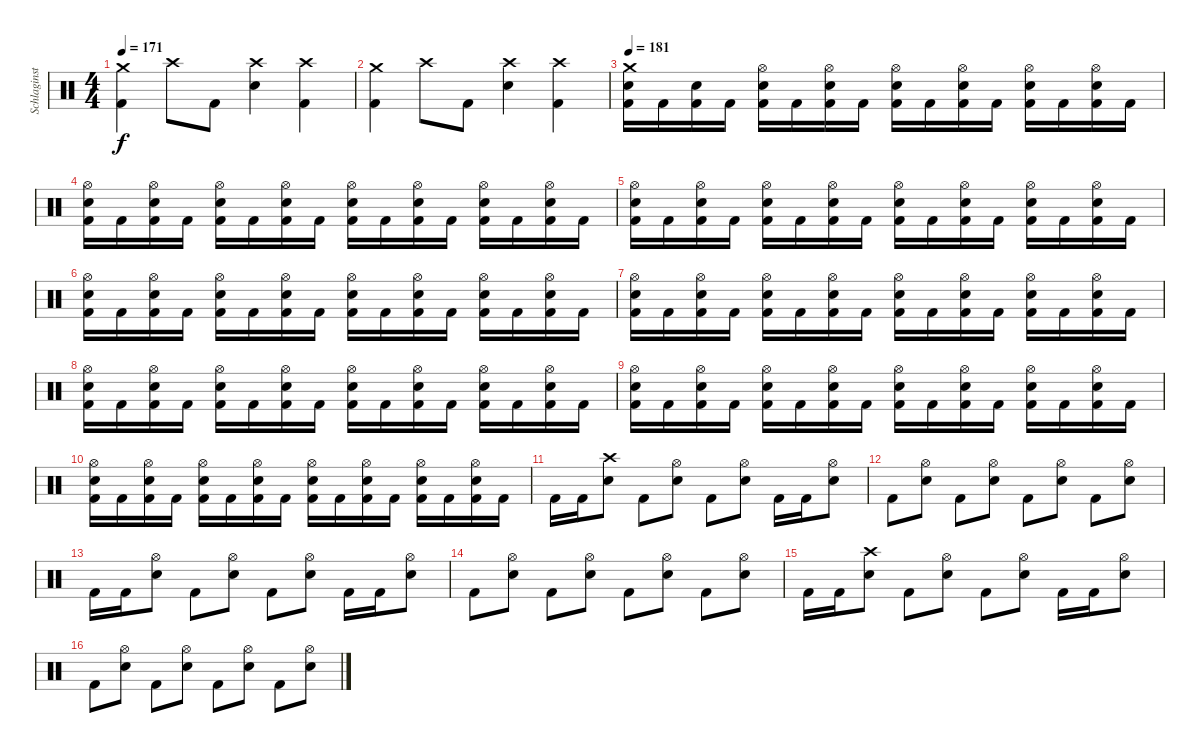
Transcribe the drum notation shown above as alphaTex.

\track ("Schlaginstrumente - Auswahl" "Schlaginst") {instrument percussion}
\staff {score}
\articulation defaults
\ts (4 4)
\tempo 171
\clef neutral
\ks c
("Crash medium (hit)" "Kick (hit) 2").4{dy f} "Crash high (hit)".8 "Kick (hit) 2".8 ("Crash high (hit)" "Snare (hit) 2").4 ("Crash high (hit)" "Kick (hit) 2").4 |
("Crash medium (hit)" "Kick (hit) 2").4 "Crash high (hit)".8 "Kick (hit) 2".8 ("Crash high (hit)" "Snare (hit) 2").4 ("Crash high (hit)" "Kick (hit) 2").4 |
\tempo 181
("Crash medium (hit)" "Snare (hit) 2" "Kick (hit) 2").16 "Kick (hit) 2".16 ("Snare (hit) 2" "Kick (hit) 2").16 "Kick (hit) 2".16 ("Hi-Hat (open)" "Snare (hit) 2" "Kick (hit) 2").16 "Kick (hit) 2".16 ("Hi-Hat (open)" "Snare (hit) 2" "Kick (hit) 2").16 "Kick (hit) 2".16 ("Hi-Hat (open)" "Snare (hit) 2" "Kick (hit) 2").16 "Kick (hit) 2".16 ("Hi-Hat (open)" "Snare (hit) 2" "Kick (hit) 2").16 "Kick (hit) 2".16 ("Hi-Hat (open)" "Snare (hit) 2" "Kick (hit) 2").16 "Kick (hit) 2".16 ("Hi-Hat (open)" "Snare (hit) 2" "Kick (hit) 2").16 "Kick (hit) 2".16 |
("Hi-Hat (open)" "Snare (hit) 2" "Kick (hit) 2").16 "Kick (hit) 2".16 ("Hi-Hat (open)" "Snare (hit) 2" "Kick (hit) 2").16 "Kick (hit) 2".16 ("Hi-Hat (open)" "Snare (hit) 2" "Kick (hit) 2").16 "Kick (hit) 2".16 ("Hi-Hat (open)" "Snare (hit) 2" "Kick (hit) 2").16 "Kick (hit) 2".16 ("Hi-Hat (open)" "Snare (hit) 2" "Kick (hit) 2").16 "Kick (hit) 2".16 ("Hi-Hat (open)" "Snare (hit) 2" "Kick (hit) 2").16 "Kick (hit) 2".16 ("Hi-Hat (open)" "Snare (hit) 2" "Kick (hit) 2").16 "Kick (hit) 2".16 ("Hi-Hat (open)" "Snare (hit) 2" "Kick (hit) 2").16 "Kick (hit) 2".16 |
("Hi-Hat (open)" "Snare (hit) 2" "Kick (hit) 2").16 "Kick (hit) 2".16 ("Hi-Hat (open)" "Snare (hit) 2" "Kick (hit) 2").16 "Kick (hit) 2".16 ("Hi-Hat (open)" "Snare (hit) 2" "Kick (hit) 2").16 "Kick (hit) 2".16 ("Hi-Hat (open)" "Snare (hit) 2" "Kick (hit) 2").16 "Kick (hit) 2".16 ("Hi-Hat (open)" "Snare (hit) 2" "Kick (hit) 2").16 "Kick (hit) 2".16 ("Hi-Hat (open)" "Snare (hit) 2" "Kick (hit) 2").16 "Kick (hit) 2".16 ("Hi-Hat (open)" "Snare (hit) 2" "Kick (hit) 2").16 "Kick (hit) 2".16 ("Hi-Hat (open)" "Snare (hit) 2" "Kick (hit) 2").16 "Kick (hit) 2".16 |
("Hi-Hat (open)" "Snare (hit) 2" "Kick (hit) 2").16 "Kick (hit) 2".16 ("Hi-Hat (open)" "Snare (hit) 2" "Kick (hit) 2").16 "Kick (hit) 2".16 ("Hi-Hat (open)" "Snare (hit) 2" "Kick (hit) 2").16 "Kick (hit) 2".16 ("Hi-Hat (open)" "Snare (hit) 2" "Kick (hit) 2").16 "Kick (hit) 2".16 ("Hi-Hat (open)" "Snare (hit) 2" "Kick (hit) 2").16 "Kick (hit) 2".16 ("Hi-Hat (open)" "Snare (hit) 2" "Kick (hit) 2").16 "Kick (hit) 2".16 ("Hi-Hat (open)" "Snare (hit) 2" "Kick (hit) 2").16 "Kick (hit) 2".16 ("Hi-Hat (open)" "Snare (hit) 2" "Kick (hit) 2").16 "Kick (hit) 2".16 |
("Hi-Hat (open)" "Snare (hit) 2" "Kick (hit) 2").16 "Kick (hit) 2".16 ("Hi-Hat (open)" "Snare (hit) 2" "Kick (hit) 2").16 "Kick (hit) 2".16 ("Hi-Hat (open)" "Snare (hit) 2" "Kick (hit) 2").16 "Kick (hit) 2".16 ("Hi-Hat (open)" "Snare (hit) 2" "Kick (hit) 2").16 "Kick (hit) 2".16 ("Hi-Hat (open)" "Snare (hit) 2" "Kick (hit) 2").16 "Kick (hit) 2".16 ("Hi-Hat (open)" "Snare (hit) 2" "Kick (hit) 2").16 "Kick (hit) 2".16 ("Hi-Hat (open)" "Snare (hit) 2" "Kick (hit) 2").16 "Kick (hit) 2".16 ("Hi-Hat (open)" "Snare (hit) 2" "Kick (hit) 2").16 "Kick (hit) 2".16 |
("Hi-Hat (open)" "Snare (hit) 2" "Kick (hit) 2").16 "Kick (hit) 2".16 ("Hi-Hat (open)" "Snare (hit) 2" "Kick (hit) 2").16 "Kick (hit) 2".16 ("Hi-Hat (open)" "Snare (hit) 2" "Kick (hit) 2").16 "Kick (hit) 2".16 ("Hi-Hat (open)" "Snare (hit) 2" "Kick (hit) 2").16 "Kick (hit) 2".16 ("Hi-Hat (open)" "Snare (hit) 2" "Kick (hit) 2").16 "Kick (hit) 2".16 ("Hi-Hat (open)" "Snare (hit) 2" "Kick (hit) 2").16 "Kick (hit) 2".16 ("Hi-Hat (open)" "Snare (hit) 2" "Kick (hit) 2").16 "Kick (hit) 2".16 ("Hi-Hat (open)" "Snare (hit) 2" "Kick (hit) 2").16 "Kick (hit) 2".16 |
("Hi-Hat (open)" "Snare (hit) 2" "Kick (hit) 2").16 "Kick (hit) 2".16 ("Hi-Hat (open)" "Snare (hit) 2" "Kick (hit) 2").16 "Kick (hit) 2".16 ("Hi-Hat (open)" "Snare (hit) 2" "Kick (hit) 2").16 "Kick (hit) 2".16 ("Hi-Hat (open)" "Snare (hit) 2" "Kick (hit) 2").16 "Kick (hit) 2".16 ("Hi-Hat (open)" "Snare (hit) 2" "Kick (hit) 2").16 "Kick (hit) 2".16 ("Hi-Hat (open)" "Snare (hit) 2" "Kick (hit) 2").16 "Kick (hit) 2".16 ("Hi-Hat (open)" "Snare (hit) 2" "Kick (hit) 2").16 "Kick (hit) 2".16 ("Hi-Hat (open)" "Snare (hit) 2" "Kick (hit) 2").16 "Kick (hit) 2".16 |
("Hi-Hat (open)" "Snare (hit) 2" "Kick (hit) 2").16 "Kick (hit) 2".16 ("Hi-Hat (open)" "Snare (hit) 2" "Kick (hit) 2").16 "Kick (hit) 2".16 ("Hi-Hat (open)" "Snare (hit) 2" "Kick (hit) 2").16 "Kick (hit) 2".16 ("Hi-Hat (open)" "Snare (hit) 2" "Kick (hit) 2").16 "Kick (hit) 2".16 ("Hi-Hat (open)" "Snare (hit) 2" "Kick (hit) 2").16 "Kick (hit) 2".16 ("Hi-Hat (open)" "Snare (hit) 2" "Kick (hit) 2").16 "Kick (hit) 2".16 ("Hi-Hat (open)" "Snare (hit) 2" "Kick (hit) 2").16 "Kick (hit) 2".16 ("Hi-Hat (open)" "Snare (hit) 2" "Kick (hit) 2").16 "Kick (hit) 2".16 |
"Kick (hit) 2".16 "Kick (hit) 2".16 ("Crash high (hit)" "Snare (hit) 2").8 "Kick (hit) 2".8 ("Hi-Hat (open)" "Snare (hit) 2").8 "Kick (hit) 2".8 ("Hi-Hat (open)" "Snare (hit) 2").8 "Kick (hit) 2".16 "Kick (hit) 2".16 ("Hi-Hat (open)" "Snare (hit) 2").8 |
"Kick (hit) 2".8 ("Hi-Hat (open)" "Snare (hit) 2").8 "Kick (hit) 2".8 ("Hi-Hat (open)" "Snare (hit) 2").8 "Kick (hit) 2".8 ("Hi-Hat (open)" "Snare (hit) 2").8 "Kick (hit) 2".8 ("Hi-Hat (open)" "Snare (hit) 2").8 |
"Kick (hit) 2".16 "Kick (hit) 2".16 ("Hi-Hat (open)" "Snare (hit) 2").8 "Kick (hit) 2".8 ("Hi-Hat (open)" "Snare (hit) 2").8 "Kick (hit) 2".8 ("Hi-Hat (open)" "Snare (hit) 2").8 "Kick (hit) 2".16 "Kick (hit) 2".16 ("Hi-Hat (open)" "Snare (hit) 2").8 |
"Kick (hit) 2".8 ("Hi-Hat (open)" "Snare (hit) 2").8 "Kick (hit) 2".8 ("Hi-Hat (open)" "Snare (hit) 2").8 "Kick (hit) 2".8 ("Hi-Hat (open)" "Snare (hit) 2").8 "Kick (hit) 2".8 ("Hi-Hat (open)" "Snare (hit) 2").8 |
"Kick (hit) 2".16 "Kick (hit) 2".16 ("Crash high (hit)" "Snare (hit) 2").8 "Kick (hit) 2".8 ("Hi-Hat (open)" "Snare (hit) 2").8 "Kick (hit) 2".8 ("Hi-Hat (open)" "Snare (hit) 2").8 "Kick (hit) 2".16 "Kick (hit) 2".16 ("Hi-Hat (open)" "Snare (hit) 2").8 |
"Kick (hit) 2".8 ("Hi-Hat (open)" "Snare (hit) 2").8 "Kick (hit) 2".8 ("Hi-Hat (open)" "Snare (hit) 2").8 "Kick (hit) 2".8 ("Hi-Hat (open)" "Snare (hit) 2").8 "Kick (hit) 2".8 ("Hi-Hat (open)" "Snare (hit) 2").8
